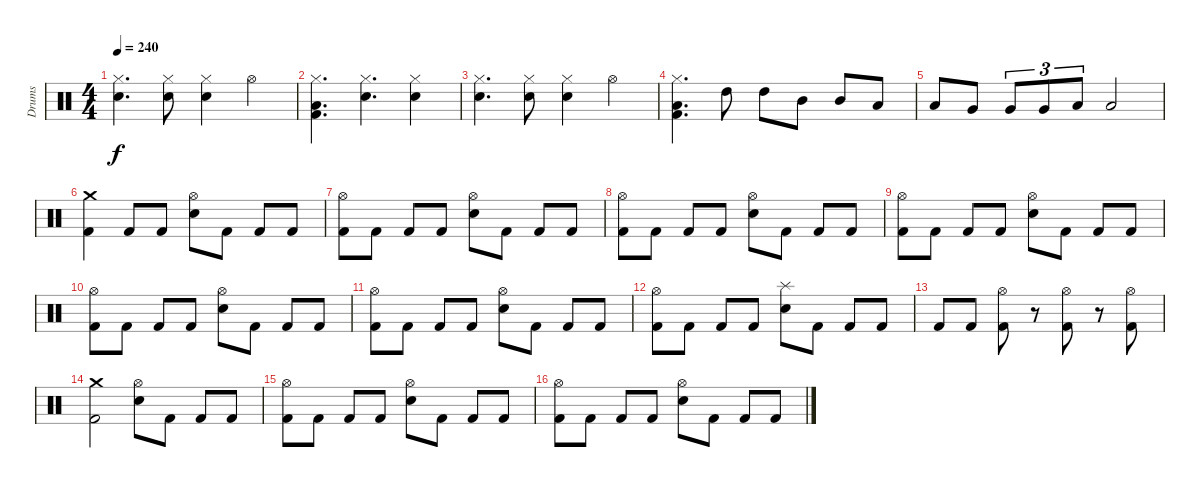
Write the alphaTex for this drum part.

\track ("Drums" "Drums") {instrument percussion}
\staff {score}
\articulation defaults
\ts (4 4)
\tempo 240
\clef neutral
\ks c
("Hi-Hat (closed)" "Electric Snare (hit)").4{d dy f} ("Hi-Hat (closed)" "Electric Snare (hit)").8 ("Hi-Hat (closed)" "Electric Snare (hit)").4 "Hi-Hat (open)".4 |
("Low Tom (hit)" "Hi-Hat (closed)" "Kick (hit) 2").4{d} ("Hi-Hat (closed)" "Electric Snare (hit)").4{d} ("Hi-Hat (closed)" "Electric Snare (hit)").4 |
("Hi-Hat (closed)" "Electric Snare (hit)").4{d} ("Hi-Hat (closed)" "Electric Snare (hit)").8 ("Hi-Hat (closed)" "Electric Snare (hit)").4 "Hi-Hat (open)".4 |
("Low Tom (hit)" "Hi-Hat (closed)" "Kick (hit) 2").4{d} "High Tom (hit)".8 "High Tom (hit)".8 "Mid Tom (hit)".8 "Mid Tom (hit)".8 "Low Tom (hit)".8 |
"Low Tom (hit)".8 "Very Low Tom (hit)".8 "Very Low Tom (hit)".8{tu (3 2)} "Very Low Tom (hit)".8{tu (3 2)} "Low Floor Tom (hit)".8{tu (3 2)} "Low Floor Tom (hit)".2 |
("Crash medium (hit)" "Kick (hit) 2").4 "Kick (hit) 2".8 "Kick (hit) 2".8 ("Hi-Hat (open)" "Electric Snare (hit)").8 "Kick (hit) 2".8 "Kick (hit) 2".8 "Kick (hit) 2".8 |
("Hi-Hat (open)" "Kick (hit) 2").8 "Kick (hit) 2".8 "Kick (hit) 2".8 "Kick (hit) 2".8 ("Hi-Hat (open)" "Electric Snare (hit)").8 "Kick (hit) 2".8 "Kick (hit) 2".8 "Kick (hit) 2".8 |
("Hi-Hat (open)" "Kick (hit) 2").8 "Kick (hit) 2".8 "Kick (hit) 2".8 "Kick (hit) 2".8 ("Hi-Hat (open)" "Electric Snare (hit)").8 "Kick (hit) 2".8 "Kick (hit) 2".8 "Kick (hit) 2".8 |
("Hi-Hat (open)" "Kick (hit) 2").8 "Kick (hit) 2".8 "Kick (hit) 2".8 "Kick (hit) 2".8 ("Hi-Hat (open)" "Electric Snare (hit)").8 "Kick (hit) 2".8 "Kick (hit) 2".8 "Kick (hit) 2".8 |
("Hi-Hat (open)" "Kick (hit) 2").8 "Kick (hit) 2".8 "Kick (hit) 2".8 "Kick (hit) 2".8 ("Hi-Hat (open)" "Electric Snare (hit)").8 "Kick (hit) 2".8 "Kick (hit) 2".8 "Kick (hit) 2".8 |
("Hi-Hat (open)" "Kick (hit) 2").8 "Kick (hit) 2".8 "Kick (hit) 2".8 "Kick (hit) 2".8 ("Hi-Hat (open)" "Electric Snare (hit)").8 "Kick (hit) 2".8 "Kick (hit) 2".8 "Kick (hit) 2".8 |
("Hi-Hat (open)" "Kick (hit) 2").8 "Kick (hit) 2".8 "Kick (hit) 2".8 "Kick (hit) 2".8 ("Splash (hit)" "Electric Snare (hit)").8 "Kick (hit) 2".8 "Kick (hit) 2".8 "Kick (hit) 2".8 |
"Kick (hit) 2".8 "Kick (hit) 2".8 ("Hi-Hat (open)" "Kick (hit) 2").8 r.8 ("Hi-Hat (open)" "Kick (hit) 2").8 r.8 ("Hi-Hat (open)" "Kick (hit) 2").8 |
("Crash medium (hit)" "Kick (hit) 2").2 ("Hi-Hat (open)" "Electric Snare (hit)").8 "Kick (hit) 2".8 "Kick (hit) 2".8 "Kick (hit) 2".8 |
("Hi-Hat (open)" "Kick (hit) 2").8 "Kick (hit) 2".8 "Kick (hit) 2".8 "Kick (hit) 2".8 ("Hi-Hat (open)" "Electric Snare (hit)").8 "Kick (hit) 2".8 "Kick (hit) 2".8 "Kick (hit) 2".8 |
("Hi-Hat (open)" "Kick (hit) 2").8 "Kick (hit) 2".8 "Kick (hit) 2".8 "Kick (hit) 2".8 ("Hi-Hat (open)" "Electric Snare (hit)").8 "Kick (hit) 2".8 "Kick (hit) 2".8 "Kick (hit) 2".8
